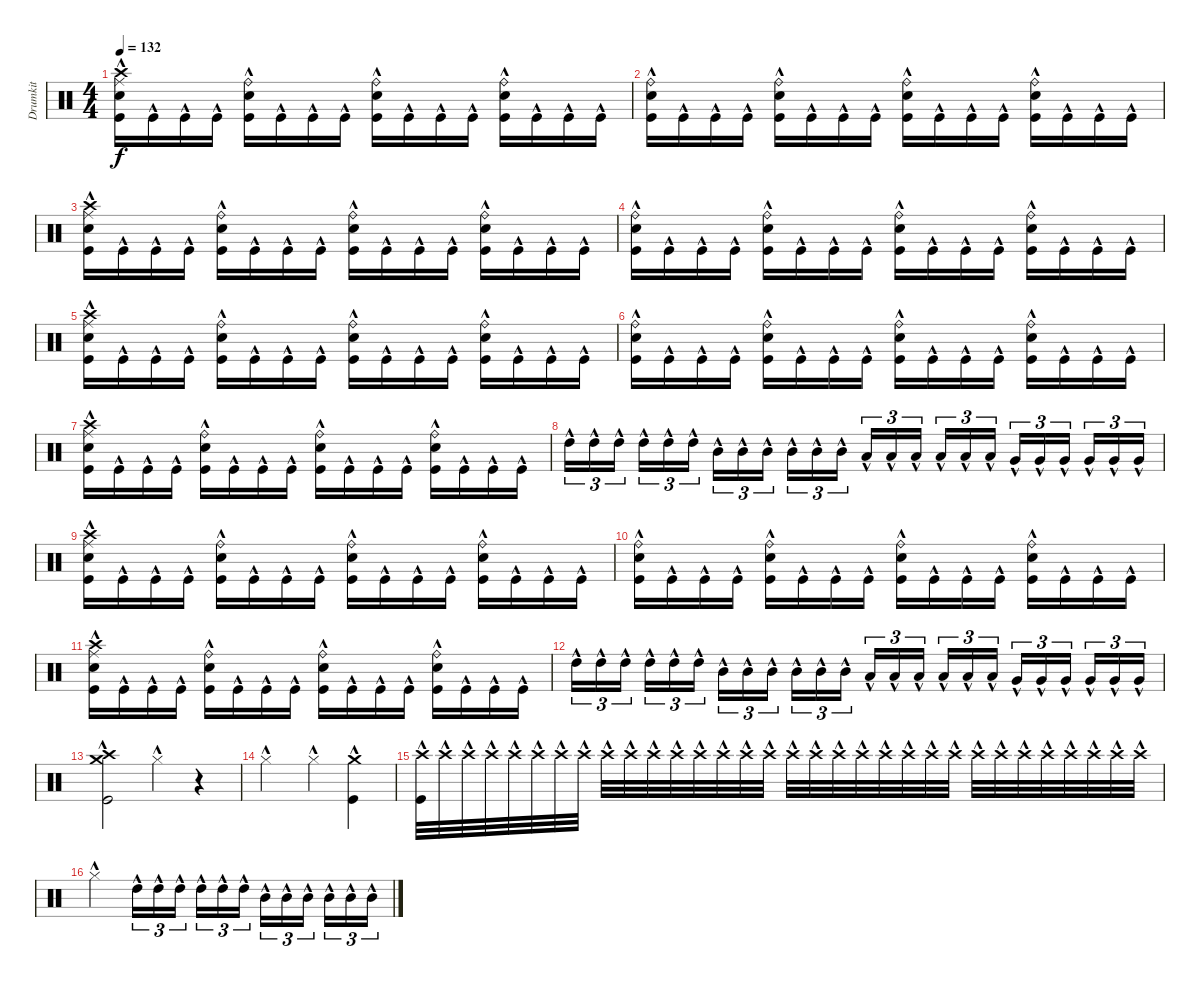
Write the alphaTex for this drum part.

\track ("Drumkit" "Drumkit") {instrument percussion}
\staff {score}
\articulation defaults
\ts (4 4)
\tempo 132
\clef neutral
\ks c
("Crash high (hit)"{hac} "Snare (hit) 2"{hac} "Ride (middle)"{hac} "Kick (hit)"{hac}).16{dy f} "Kick (hit)"{hac}.16 "Kick (hit)"{hac}.16 "Kick (hit)"{hac}.16 ("Snare (hit) 2"{hac} "Kick (hit)"{hac} "Ride (bell)").16 "Kick (hit)"{hac}.16 "Kick (hit)"{hac}.16 "Kick (hit)"{hac}.16 ("Snare (hit) 2"{hac} "Ride (bell)"{hac} "Kick (hit)"{hac}).16 "Kick (hit)"{hac}.16 "Kick (hit)"{hac}.16 "Kick (hit)"{hac}.16 ("Snare (hit) 2"{hac} "Ride (bell)"{hac} "Kick (hit)"{hac}).16 "Kick (hit)"{hac}.16 "Kick (hit)"{hac}.16 "Kick (hit)"{hac}.16 |
("Snare (hit) 2"{hac} "Ride (bell)"{hac} "Kick (hit)"{hac}).16 "Kick (hit)"{hac}.16 "Kick (hit)"{hac}.16 "Kick (hit)"{hac}.16 ("Snare (hit) 2"{hac} "Ride (bell)"{hac} "Kick (hit)"{hac}).16 "Kick (hit)"{hac}.16 "Kick (hit)"{hac}.16 "Kick (hit)"{hac}.16 ("Snare (hit) 2"{hac} "Ride (bell)"{hac} "Kick (hit)"{hac}).16 "Kick (hit)"{hac}.16 "Kick (hit)"{hac}.16 "Kick (hit)"{hac}.16 ("Snare (hit) 2"{hac} "Ride (bell)"{hac} "Kick (hit)"{hac}).16 "Kick (hit)"{hac}.16 "Kick (hit)"{hac}.16 "Kick (hit)"{hac}.16 |
("Crash high (hit)"{hac} "Snare (hit) 2"{hac} "Ride (middle)"{hac} "Kick (hit)"{hac}).16 "Kick (hit)"{hac}.16 "Kick (hit)"{hac}.16 "Kick (hit)"{hac}.16 ("Snare (hit) 2"{hac} "Ride (bell)"{hac} "Kick (hit)"{hac}).16 "Kick (hit)"{hac}.16 "Kick (hit)"{hac}.16 "Kick (hit)"{hac}.16 ("Snare (hit) 2"{hac} "Ride (bell)"{hac} "Kick (hit)"{hac}).16 "Kick (hit)"{hac}.16 "Kick (hit)"{hac}.16 "Kick (hit)"{hac}.16 ("Snare (hit) 2"{hac} "Ride (bell)"{hac} "Kick (hit)"{hac}).16 "Kick (hit)"{hac}.16 "Kick (hit)"{hac}.16 "Kick (hit)"{hac}.16 |
("Snare (hit) 2"{hac} "Ride (bell)"{hac} "Kick (hit)"{hac}).16 "Kick (hit)"{hac}.16 "Kick (hit)"{hac}.16 "Kick (hit)"{hac}.16 ("Snare (hit) 2"{hac} "Ride (bell)"{hac} "Kick (hit)"{hac}).16 "Kick (hit)"{hac}.16 "Kick (hit)"{hac}.16 "Kick (hit)"{hac}.16 ("Snare (hit) 2"{hac} "Ride (bell)"{hac} "Kick (hit)"{hac}).16 "Kick (hit)"{hac}.16 "Kick (hit)"{hac}.16 "Kick (hit)"{hac}.16 ("Snare (hit) 2"{hac} "Ride (bell)"{hac} "Kick (hit)"{hac}).16 "Kick (hit)"{hac}.16 "Kick (hit)"{hac}.16 "Kick (hit)"{hac}.16 |
("Crash high (hit)"{hac} "Snare (hit) 2"{hac} "Ride (middle)"{hac} "Kick (hit)"{hac}).16 "Kick (hit)"{hac}.16 "Kick (hit)"{hac}.16 "Kick (hit)"{hac}.16 ("Snare (hit) 2"{hac} "Ride (bell)"{hac} "Kick (hit)"{hac}).16 "Kick (hit)"{hac}.16 "Kick (hit)"{hac}.16 "Kick (hit)"{hac}.16 ("Snare (hit) 2"{hac} "Ride (bell)"{hac} "Kick (hit)"{hac}).16 "Kick (hit)"{hac}.16 "Kick (hit)"{hac}.16 "Kick (hit)"{hac}.16 ("Snare (hit) 2"{hac} "Ride (bell)"{hac} "Kick (hit)"{hac}).16 "Kick (hit)"{hac}.16 "Kick (hit)"{hac}.16 "Kick (hit)"{hac}.16 |
("Snare (hit) 2"{hac} "Ride (bell)"{hac} "Kick (hit)"{hac}).16 "Kick (hit)"{hac}.16 "Kick (hit)"{hac}.16 "Kick (hit)"{hac}.16 ("Snare (hit) 2"{hac} "Ride (bell)"{hac} "Kick (hit)"{hac}).16 "Kick (hit)"{hac}.16 "Kick (hit)"{hac}.16 "Kick (hit)"{hac}.16 ("Snare (hit) 2"{hac} "Ride (bell)"{hac} "Kick (hit)"{hac}).16 "Kick (hit)"{hac}.16 "Kick (hit)"{hac}.16 "Kick (hit)"{hac}.16 ("Snare (hit) 2"{hac} "Ride (bell)"{hac} "Kick (hit)"{hac}).16 "Kick (hit)"{hac}.16 "Kick (hit)"{hac}.16 "Kick (hit)"{hac}.16 |
("Crash high (hit)"{hac} "Snare (hit) 2"{hac} "Ride (middle)"{hac} "Kick (hit)"{hac}).16 "Kick (hit)"{hac}.16 "Kick (hit)"{hac}.16 "Kick (hit)"{hac}.16 ("Snare (hit) 2"{hac} "Ride (bell)"{hac} "Kick (hit)"{hac}).16 "Kick (hit)"{hac}.16 "Kick (hit)"{hac}.16 "Kick (hit)"{hac}.16 ("Snare (hit) 2"{hac} "Ride (bell)"{hac} "Kick (hit)"{hac}).16 "Kick (hit)"{hac}.16 "Kick (hit)"{hac}.16 "Kick (hit)"{hac}.16 ("Snare (hit) 2"{hac} "Ride (bell)"{hac} "Kick (hit)"{hac}).16 "Kick (hit)"{hac}.16 "Kick (hit)"{hac}.16 "Kick (hit)"{hac}.16 |
"High Tom (hit)"{hac}.16{tu (3 2)} "High Tom (hit)"{hac}.16{tu (3 2)} "High Tom (hit)"{hac}.16{tu (3 2)} "High Tom (hit)"{hac}.16{tu (3 2)} "High Tom (hit)"{hac}.16{tu (3 2)} "High Tom (hit)"{hac}.16{tu (3 2)} "Mid Tom (hit)"{hac}.16{tu (3 2)} "Mid Tom (hit)"{hac}.16{tu (3 2)} "Mid Tom (hit)"{hac}.16{tu (3 2)} "Mid Tom (hit)"{hac}.16{tu (3 2)} "Mid Tom (hit)"{hac}.16{tu (3 2)} "Mid Tom (hit)"{hac}.16{tu (3 2)} "Low Tom (hit)"{hac}.16{tu (3 2)} "Low Tom (hit)"{hac}.16{tu (3 2)} "Low Tom (hit)"{hac}.16{tu (3 2)} "Low Tom (hit)"{hac}.16{tu (3 2)} "Low Tom (hit)"{hac}.16{tu (3 2)} "Low Tom (hit)"{hac}.16{tu (3 2)} "Very Low Tom (hit)"{hac}.16{tu (3 2)} "Very Low Tom (hit)"{hac}.16{tu (3 2)} "Very Low Tom (hit)"{hac}.16{tu (3 2)} "Very Low Tom (hit)"{hac}.16{tu (3 2)} "Very Low Tom (hit)"{hac}.16{tu (3 2)} "Very Low Tom (hit)"{hac}.16{tu (3 2)} |
("Crash high (hit)"{hac} "Snare (hit) 2"{hac} "Ride (middle)"{hac} "Kick (hit)"{hac}).16 "Kick (hit)"{hac}.16 "Kick (hit)"{hac}.16 "Kick (hit)"{hac}.16 ("Snare (hit) 2"{hac} "Ride (bell)"{hac} "Kick (hit)"{hac}).16 "Kick (hit)"{hac}.16 "Kick (hit)"{hac}.16 "Kick (hit)"{hac}.16 ("Snare (hit) 2"{hac} "Ride (bell)"{hac} "Kick (hit)"{hac}).16 "Kick (hit)"{hac}.16 "Kick (hit)"{hac}.16 "Kick (hit)"{hac}.16 ("Snare (hit) 2"{hac} "Ride (bell)"{hac} "Kick (hit)"{hac}).16 "Kick (hit)"{hac}.16 "Kick (hit)"{hac}.16 "Kick (hit)"{hac}.16 |
("Snare (hit) 2"{hac} "Ride (bell)"{hac} "Kick (hit)"{hac}).16 "Kick (hit)"{hac}.16 "Kick (hit)"{hac}.16 "Kick (hit)"{hac}.16 ("Snare (hit) 2"{hac} "Ride (bell)"{hac} "Kick (hit)"{hac}).16 "Kick (hit)"{hac}.16 "Kick (hit)"{hac}.16 "Kick (hit)"{hac}.16 ("Snare (hit) 2"{hac} "Ride (bell)"{hac} "Kick (hit)"{hac}).16 "Kick (hit)"{hac}.16 "Kick (hit)"{hac}.16 "Kick (hit)"{hac}.16 ("Snare (hit) 2"{hac} "Ride (bell)"{hac} "Kick (hit)"{hac}).16 "Kick (hit)"{hac}.16 "Kick (hit)"{hac}.16 "Kick (hit)"{hac}.16 |
("Crash high (hit)"{hac} "Snare (hit) 2"{hac} "Ride (middle)"{hac} "Kick (hit)"{hac}).16 "Kick (hit)"{hac}.16 "Kick (hit)"{hac}.16 "Kick (hit)"{hac}.16 ("Snare (hit) 2"{hac} "Ride (bell)"{hac} "Kick (hit)"{hac}).16 "Kick (hit)"{hac}.16 "Kick (hit)"{hac}.16 "Kick (hit)"{hac}.16 ("Snare (hit) 2"{hac} "Ride (bell)"{hac} "Kick (hit)"{hac}).16 "Kick (hit)"{hac}.16 "Kick (hit)"{hac}.16 "Kick (hit)"{hac}.16 ("Snare (hit) 2"{hac} "Ride (bell)"{hac} "Kick (hit)"{hac}).16 "Kick (hit)"{hac}.16 "Kick (hit)"{hac}.16 "Kick (hit)"{hac}.16 |
"High Tom (hit)"{hac}.16{tu (3 2)} "High Tom (hit)"{hac}.16{tu (3 2)} "High Tom (hit)"{hac}.16{tu (3 2)} "High Tom (hit)"{hac}.16{tu (3 2)} "High Tom (hit)"{hac}.16{tu (3 2)} "High Tom (hit)"{hac}.16{tu (3 2)} "Mid Tom (hit)"{hac}.16{tu (3 2)} "Mid Tom (hit)"{hac}.16{tu (3 2)} "Mid Tom (hit)"{hac}.16{tu (3 2)} "Mid Tom (hit)"{hac}.16{tu (3 2)} "Mid Tom (hit)"{hac}.16{tu (3 2)} "Mid Tom (hit)"{hac}.16{tu (3 2)} "Low Tom (hit)"{hac}.16{tu (3 2)} "Low Tom (hit)"{hac}.16{tu (3 2)} "Low Tom (hit)"{hac}.16{tu (3 2)} "Low Tom (hit)"{hac}.16{tu (3 2)} "Low Tom (hit)"{hac}.16{tu (3 2)} "Low Tom (hit)"{hac}.16{tu (3 2)} "Very Low Tom (hit)"{hac}.16{tu (3 2)} "Very Low Tom (hit)"{hac}.16{tu (3 2)} "Very Low Tom (hit)"{hac}.16{tu (3 2)} "Very Low Tom (hit)"{hac}.16{tu (3 2)} "Very Low Tom (hit)"{hac}.16{tu (3 2)} "Very Low Tom (hit)"{hac}.16{tu (3 2)} |
("Crash high (hit)"{hac} "Crash medium (hit)"{hac} "Kick (hit)"{hac}).2 "Hi-Hat (closed)"{hac}.4 r.4 |
"Hi-Hat (closed)"{hac}.2 "Hi-Hat (closed)"{hac}.4 ("Crash medium (hit)"{hac} "Kick (hit)"{hac}).4 |
("Crash high (hit)"{hac} "Kick (hit)"{hac}).32 "Crash high (hit)"{hac}.32 "Crash high (hit)"{hac}.32 "Crash high (hit)"{hac}.32 "Crash high (hit)"{hac}.32 "Crash high (hit)"{hac}.32 "Crash high (hit)"{hac}.32 "Crash high (hit)"{hac}.32 "Crash high (hit)"{hac}.32 "Crash high (hit)"{hac}.32 "Crash high (hit)"{hac}.32 "Crash high (hit)"{hac}.32 "Crash high (hit)"{hac}.32 "Crash high (hit)"{hac}.32 "Crash high (hit)"{hac}.32 "Crash high (hit)"{hac}.32 "Crash high (hit)"{hac}.32 "Crash high (hit)"{hac}.32 "Crash high (hit)"{hac}.32 "Crash high (hit)"{hac}.32 "Crash high (hit)"{hac}.32 "Crash high (hit)"{hac}.32 "Crash high (hit)"{hac}.32 "Crash high (hit)"{hac}.32 "Crash high (hit)"{hac}.32 "Crash high (hit)"{hac}.32 "Crash high (hit)"{hac}.32 "Crash high (hit)"{hac}.32 "Crash high (hit)"{hac}.32 "Crash high (hit)"{hac}.32 "Crash high (hit)"{hac}.32 "Crash high (hit)"{hac}.32 |
"Hi-Hat (closed)"{hac}.2 "High Tom (hit)"{hac}.16{tu (3 2)} "High Tom (hit)"{hac}.16{tu (3 2)} "High Tom (hit)"{hac}.16{tu (3 2)} "High Tom (hit)"{hac}.16{tu (3 2)} "High Tom (hit)"{hac}.16{tu (3 2)} "High Tom (hit)"{hac}.16{tu (3 2)} "Mid Tom (hit)"{hac}.16{tu (3 2)} "Mid Tom (hit)"{hac}.16{tu (3 2)} "Mid Tom (hit)"{hac}.16{tu (3 2)} "Mid Tom (hit)"{hac}.16{tu (3 2)} "Mid Tom (hit)"{hac}.16{tu (3 2)} "Mid Tom (hit)"{hac}.16{tu (3 2)}
